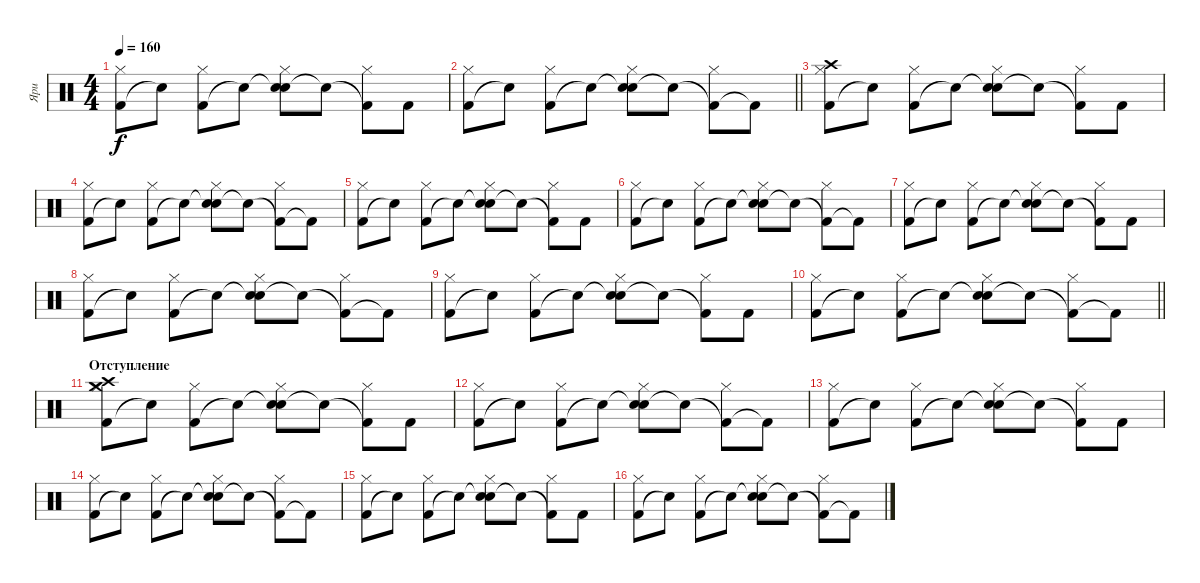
\track ("Яри" "Яри") {instrument percussion}
\staff {score}
\articulation defaults
\ts (4 4)
\tempo 160
\clef neutral
\ks c
("Kick (hit) 2" "Hi-Hat (closed)").8{dy f} "Snare (hit)"{t}.8 ("Kick (hit) 2" "Hi-Hat (closed)").8 "Snare (hit)"{t}.8 ("Snare (hit)"{t} "Hi-Hat (closed)" "Snare (hit) 2").8 "Snare (hit)"{t}.8 ("Kick (hit) 2"{t} "Hi-Hat (closed)").8 "Kick (hit) 2".8 |
\barLineRight lightlight
("Kick (hit) 2" "Hi-Hat (closed)").8 "Snare (hit)"{t}.8 ("Kick (hit) 2" "Hi-Hat (closed)").8 "Snare (hit)"{t}.8 ("Snare (hit)"{t} "Hi-Hat (closed)" "Snare (hit) 2").8 "Snare (hit)"{t}.8 ("Kick (hit) 2"{t} "Hi-Hat (closed)").8 "Kick (hit) 2"{t}.8 |
\section ("" " ")
("Kick (hit) 2" "Hi-Hat (closed)" "Crash high (hit)").8 "Snare (hit)"{t}.8 ("Kick (hit) 2" "Hi-Hat (closed)").8 "Snare (hit)"{t}.8 ("Snare (hit)"{t} "Hi-Hat (closed)" "Snare (hit) 2").8 "Snare (hit)"{t}.8 ("Kick (hit) 2"{t} "Hi-Hat (closed)").8 "Kick (hit) 2".8 |
("Kick (hit) 2" "Hi-Hat (closed)").8 "Snare (hit)"{t}.8 ("Kick (hit) 2" "Hi-Hat (closed)").8 "Snare (hit)"{t}.8 ("Snare (hit)"{t} "Hi-Hat (closed)" "Snare (hit) 2").8 "Snare (hit)"{t}.8 ("Kick (hit) 2"{t} "Hi-Hat (closed)").8 "Kick (hit) 2"{t}.8 |
("Kick (hit) 2" "Hi-Hat (closed)").8 "Snare (hit)"{t}.8 ("Kick (hit) 2" "Hi-Hat (closed)").8 "Snare (hit)"{t}.8 ("Snare (hit)"{t} "Hi-Hat (closed)" "Snare (hit) 2").8 "Snare (hit)"{t}.8 ("Kick (hit) 2"{t} "Hi-Hat (closed)").8 "Kick (hit) 2".8 |
("Kick (hit) 2" "Hi-Hat (closed)").8 "Snare (hit)"{t}.8 ("Kick (hit) 2" "Hi-Hat (closed)").8 "Snare (hit)"{t}.8 ("Snare (hit)"{t} "Hi-Hat (closed)" "Snare (hit) 2").8 "Snare (hit)"{t}.8 ("Kick (hit) 2"{t} "Hi-Hat (closed)").8 "Kick (hit) 2"{t}.8 |
("Kick (hit) 2" "Hi-Hat (closed)").8 "Snare (hit)"{t}.8 ("Kick (hit) 2" "Hi-Hat (closed)").8 "Snare (hit)"{t}.8 ("Snare (hit)"{t} "Hi-Hat (closed)" "Snare (hit) 2").8 "Snare (hit)"{t}.8 ("Kick (hit) 2"{t} "Hi-Hat (closed)").8 "Kick (hit) 2".8 |
("Kick (hit) 2" "Hi-Hat (closed)").8 "Snare (hit)"{t}.8 ("Kick (hit) 2" "Hi-Hat (closed)").8 "Snare (hit)"{t}.8 ("Snare (hit)"{t} "Hi-Hat (closed)" "Snare (hit) 2").8 "Snare (hit)"{t}.8 ("Kick (hit) 2"{t} "Hi-Hat (closed)").8 "Kick (hit) 2"{t}.8 |
("Kick (hit) 2" "Hi-Hat (closed)").8 "Snare (hit)"{t}.8 ("Kick (hit) 2" "Hi-Hat (closed)").8 "Snare (hit)"{t}.8 ("Snare (hit)"{t} "Hi-Hat (closed)" "Snare (hit) 2").8 "Snare (hit)"{t}.8 ("Kick (hit) 2"{t} "Hi-Hat (closed)").8 "Kick (hit) 2".8 |
\barLineRight lightlight
("Kick (hit) 2" "Hi-Hat (closed)").8 "Snare (hit)"{t}.8 ("Kick (hit) 2" "Hi-Hat (closed)").8 "Snare (hit)"{t}.8 ("Snare (hit)"{t} "Hi-Hat (closed)" "Snare (hit) 2").8 "Snare (hit)"{t}.8 ("Kick (hit) 2"{t} "Hi-Hat (closed)").8 "Kick (hit) 2"{t}.8 |
\section ("" "Отступление")
("Kick (hit) 2" "Hi-Hat (closed)" "Crash medium (hit)" "Crash high (hit)").8 "Snare (hit)"{t}.8 ("Kick (hit) 2" "Hi-Hat (closed)").8 "Snare (hit)"{t}.8 ("Snare (hit)"{t} "Hi-Hat (closed)" "Snare (hit) 2").8 "Snare (hit)"{t}.8 ("Kick (hit) 2"{t} "Hi-Hat (closed)").8 "Kick (hit) 2".8 |
("Kick (hit) 2" "Hi-Hat (closed)").8 "Snare (hit)"{t}.8 ("Kick (hit) 2" "Hi-Hat (closed)").8 "Snare (hit)"{t}.8 ("Snare (hit)"{t} "Hi-Hat (closed)" "Snare (hit) 2").8 "Snare (hit)"{t}.8 ("Kick (hit) 2"{t} "Hi-Hat (closed)").8 "Kick (hit) 2"{t}.8 |
("Kick (hit) 2" "Hi-Hat (closed)").8 "Snare (hit)"{t}.8 ("Kick (hit) 2" "Hi-Hat (closed)").8 "Snare (hit)"{t}.8 ("Snare (hit)"{t} "Hi-Hat (closed)" "Snare (hit) 2").8 "Snare (hit)"{t}.8 ("Kick (hit) 2"{t} "Hi-Hat (closed)").8 "Kick (hit) 2".8 |
("Kick (hit) 2" "Hi-Hat (closed)").8 "Snare (hit)"{t}.8 ("Kick (hit) 2" "Hi-Hat (closed)").8 "Snare (hit)"{t}.8 ("Snare (hit)"{t} "Hi-Hat (closed)" "Snare (hit) 2").8 "Snare (hit)"{t}.8 ("Kick (hit) 2"{t} "Hi-Hat (closed)").8 "Kick (hit) 2"{t}.8 |
("Kick (hit) 2" "Hi-Hat (closed)").8 "Snare (hit)"{t}.8 ("Kick (hit) 2" "Hi-Hat (closed)").8 "Snare (hit)"{t}.8 ("Snare (hit)"{t} "Hi-Hat (closed)" "Snare (hit) 2").8 "Snare (hit)"{t}.8 ("Kick (hit) 2"{t} "Hi-Hat (closed)").8 "Kick (hit) 2".8 |
("Kick (hit) 2" "Hi-Hat (closed)").8 "Snare (hit)"{t}.8 ("Kick (hit) 2" "Hi-Hat (closed)").8 "Snare (hit)"{t}.8 ("Snare (hit)"{t} "Hi-Hat (closed)" "Snare (hit) 2").8 "Snare (hit)"{t}.8 ("Kick (hit) 2"{t} "Hi-Hat (closed)").8 "Kick (hit) 2"{t}.8
